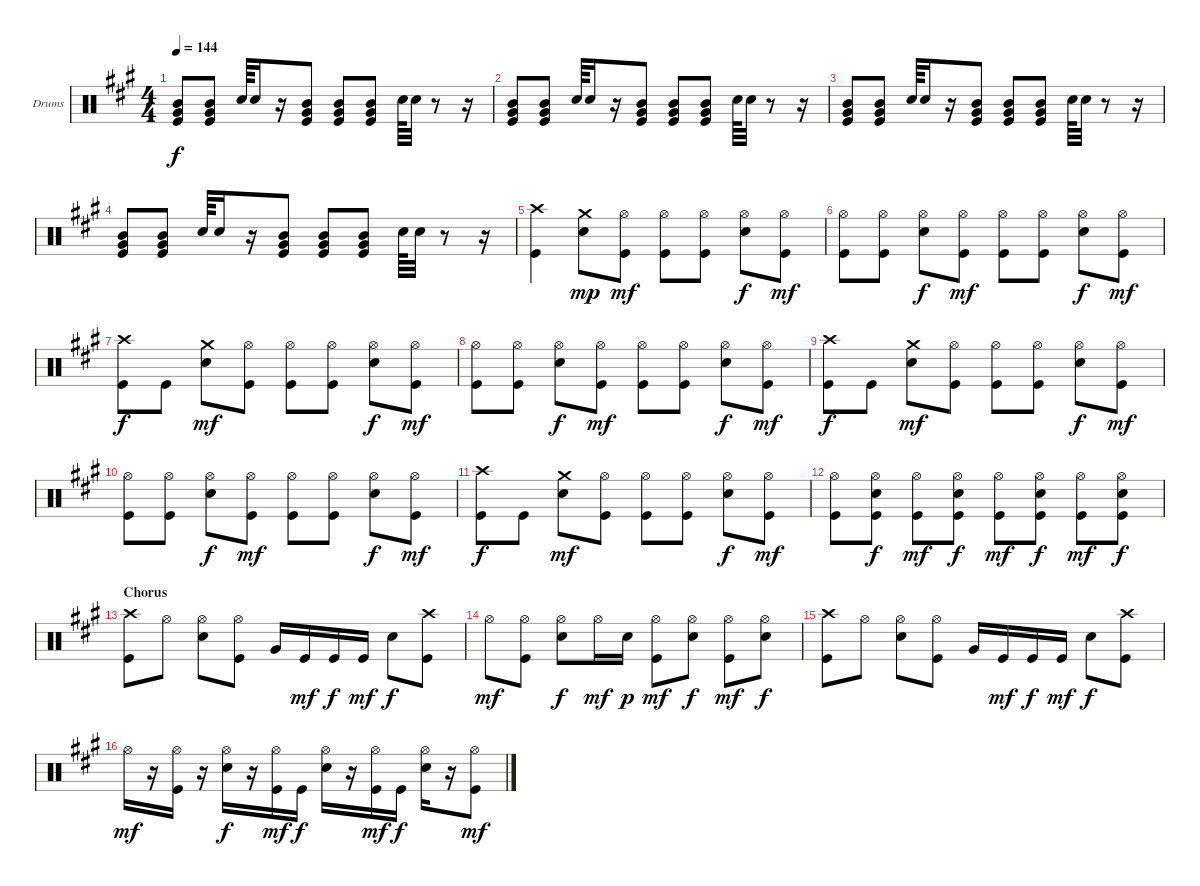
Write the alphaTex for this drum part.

\defaultSystemsLayout 4
\bracketExtendMode groupsimilarinstruments
\firstSystemTrackNameOrientation horizontal
\otherSystemsTrackNameOrientation horizontal
\track ("Drumkit" "Drums") {instrument percussion}
\staff {score}
\articulation defaults
\ts (4 4)
\tempo 144
\clef neutral
\scale
1.05801
\ks a
("Mid Tom (hit)" "Very Low Tom (hit)" "Kick (hit)").8{dy f} ("Mid Tom (hit)" "Very Low Tom (hit)" "Kick (hit)").8 "Snare (hit) 2".64 "Snare (hit) 2".16 r.16 ("Mid Tom (hit)" "Very Low Tom (hit)" "Kick (hit)").8 ("Mid Tom (hit)" "Very Low Tom (hit)" "Kick (hit)").8 ("Mid Tom (hit)" "Very Low Tom (hit)" "Kick (hit)").8 "Snare (hit) 2".64 "Snare (hit) 2".32 r.8 r.16 |
\scale
0.941992 ("Mid Tom (hit)" "Very Low Tom (hit)" "Kick (hit)").8 ("Mid Tom (hit)" "Very Low Tom (hit)" "Kick (hit)").8 "Snare (hit) 2".64 "Snare (hit) 2".16 r.16 ("Mid Tom (hit)" "Very Low Tom (hit)" "Kick (hit)").8 ("Mid Tom (hit)" "Very Low Tom (hit)" "Kick (hit)").8 ("Mid Tom (hit)" "Very Low Tom (hit)" "Kick (hit)").8 "Snare (hit) 2".64 "Snare (hit) 2".32 r.8 r.16 |
\scale
1.05801 ("Mid Tom (hit)" "Very Low Tom (hit)" "Kick (hit)").8 ("Mid Tom (hit)" "Very Low Tom (hit)" "Kick (hit)").8 "Snare (hit) 2".64 "Snare (hit) 2".16 r.16 ("Mid Tom (hit)" "Very Low Tom (hit)" "Kick (hit)").8 ("Mid Tom (hit)" "Very Low Tom (hit)" "Kick (hit)").8 ("Mid Tom (hit)" "Very Low Tom (hit)" "Kick (hit)").8 "Snare (hit) 2".64 "Snare (hit) 2".32 r.8 r.16 |
\scale
0.941992 ("Mid Tom (hit)" "Very Low Tom (hit)" "Kick (hit)").8 ("Mid Tom (hit)" "Very Low Tom (hit)" "Kick (hit)").8 "Snare (hit) 2".64 "Snare (hit) 2".16 r.16 ("Mid Tom (hit)" "Very Low Tom (hit)" "Kick (hit)").8 ("Mid Tom (hit)" "Very Low Tom (hit)" "Kick (hit)").8 ("Mid Tom (hit)" "Very Low Tom (hit)" "Kick (hit)").8 "Snare (hit) 2".64 "Snare (hit) 2".32 r.8 r.16 |
\scale
1.05801 ("Crash high (hit)" "Kick (hit)").4 ("Crash medium (hit)" "Snare (hit) 2").8{dy mp} ("Hi-Hat (open)" "Kick (hit)").8{dy mf} ("Hi-Hat (open)" "Kick (hit)").8 ("Hi-Hat (open)" "Kick (hit)").8 ("Hi-Hat (open)" "Snare (hit) 2").8{dy f} ("Hi-Hat (open)" "Kick (hit)").8{dy mf} |
\scale
0.941992 ("Hi-Hat (open)" "Kick (hit)").8 ("Hi-Hat (open)" "Kick (hit)").8 ("Hi-Hat (open)" "Snare (hit) 2").8{dy f} ("Hi-Hat (open)" "Kick (hit)").8{dy mf} ("Hi-Hat (open)" "Kick (hit)").8 ("Hi-Hat (open)" "Kick (hit)").8 ("Hi-Hat (open)" "Snare (hit) 2").8{dy f} ("Hi-Hat (open)" "Kick (hit)").8{dy mf} |
\scale
1.05801 ("Crash high (hit)" "Kick (hit)").8{dy f} "Kick (hit)".8 ("Crash medium (hit)" "Snare (hit) 2").8{dy mf} ("Hi-Hat (open)" "Kick (hit)").8 ("Hi-Hat (open)" "Kick (hit)").8 ("Hi-Hat (open)" "Kick (hit)").8 ("Hi-Hat (open)" "Snare (hit) 2").8{dy f} ("Hi-Hat (open)" "Kick (hit)").8{dy mf} |
\scale
0.941992 ("Hi-Hat (open)" "Kick (hit)").8 ("Hi-Hat (open)" "Kick (hit)").8 ("Hi-Hat (open)" "Snare (hit) 2").8{dy f} ("Hi-Hat (open)" "Kick (hit)").8{dy mf} ("Hi-Hat (open)" "Kick (hit)").8 ("Hi-Hat (open)" "Kick (hit)").8 ("Hi-Hat (open)" "Snare (hit) 2").8{dy f} ("Hi-Hat (open)" "Kick (hit)").8{dy mf} |
\scale
1.05801 ("Crash high (hit)" "Kick (hit)").8{dy f} "Kick (hit)".8 ("Crash medium (hit)" "Snare (hit) 2").8{dy mf} ("Hi-Hat (open)" "Kick (hit)").8 ("Hi-Hat (open)" "Kick (hit)").8 ("Hi-Hat (open)" "Kick (hit)").8 ("Hi-Hat (open)" "Snare (hit) 2").8{dy f} ("Hi-Hat (open)" "Kick (hit)").8{dy mf} |
\scale
0.941992 ("Hi-Hat (open)" "Kick (hit)").8 ("Hi-Hat (open)" "Kick (hit)").8 ("Hi-Hat (open)" "Snare (hit) 2").8{dy f} ("Hi-Hat (open)" "Kick (hit)").8{dy mf} ("Hi-Hat (open)" "Kick (hit)").8 ("Hi-Hat (open)" "Kick (hit)").8 ("Hi-Hat (open)" "Snare (hit) 2").8{dy f} ("Hi-Hat (open)" "Kick (hit)").8{dy mf} |
\scale
1.05801 ("Crash high (hit)" "Kick (hit)").8{dy f} "Kick (hit)".8 ("Crash medium (hit)" "Snare (hit) 2").8{dy mf} ("Hi-Hat (open)" "Kick (hit)").8 ("Hi-Hat (open)" "Kick (hit)").8 ("Hi-Hat (open)" "Kick (hit)").8 ("Hi-Hat (open)" "Snare (hit) 2").8{dy f} ("Hi-Hat (open)" "Kick (hit)").8{dy mf} |
\scale
0.941992 ("Hi-Hat (open)" "Kick (hit)").8 ("Hi-Hat (open)" "Snare (hit) 2" "Kick (hit)").8{dy f} ("Hi-Hat (open)" "Kick (hit)").8{dy mf} ("Hi-Hat (open)" "Snare (hit) 2" "Kick (hit)").8{dy f} ("Hi-Hat (open)" "Kick (hit)").8{dy mf} ("Hi-Hat (open)" "Snare (hit) 2" "Kick (hit)").8{dy f} ("Hi-Hat (open)" "Kick (hit)").8{dy mf} ("Hi-Hat (open)" "Snare (hit) 2" "Kick (hit)").8{dy f} |
\section ("" "Chorus")
\scale
1.05801 ("Crash high (hit)" "Kick (hit)").8 "Hi-Hat (open)".8 ("Hi-Hat (open)" "Snare (hit) 2").8 ("Hi-Hat (open)" "Kick (hit)").8 "Very Low Tom (hit)".16 "Kick (hit)".16{dy mf} "Kick (hit)".16{dy f} "Kick (hit)".16{dy mf} "Snare (hit) 2".8{dy f} ("Crash high (hit)" "Kick (hit)").8 |
\scale
0.941992 "Hi-Hat (open)".8{dy mf} ("Hi-Hat (open)" "Kick (hit)").8 ("Hi-Hat (open)" "Snare (hit) 2").8{dy f} "Hi-Hat (open)".16{dy mf} "Snare (hit) 2".16{dy p} ("Hi-Hat (open)" "Kick (hit)").8{dy mf} ("Hi-Hat (open)" "Snare (hit) 2").8{dy f} ("Hi-Hat (open)" "Kick (hit)").8{dy mf} ("Hi-Hat (open)" "Snare (hit) 2").8{dy f} |
\scale
1.05801 ("Crash high (hit)" "Kick (hit)").8 "Hi-Hat (open)".8 ("Hi-Hat (open)" "Snare (hit) 2").8 ("Hi-Hat (open)" "Kick (hit)").8 "Very Low Tom (hit)".16 "Kick (hit)".16{dy mf} "Kick (hit)".16{dy f} "Kick (hit)".16{dy mf} "Snare (hit) 2".8{dy f} ("Crash high (hit)" "Kick (hit)").8 |
\scale
0.941992 "Hi-Hat (open)".16{dy mf} r.16 ("Hi-Hat (open)" "Kick (hit)").16 r.16 ("Hi-Hat (open)" "Snare (hit) 2").16{dy f} r.16 ("Hi-Hat (open)" "Kick (hit)").16{dy mf} "Kick (hit)".16{dy f} ("Hi-Hat (open)" "Snare (hit) 2").16 r.16 ("Hi-Hat (open)" "Kick (hit)").16{dy mf} "Kick (hit)".16{dy f} ("Hi-Hat (open)" "Snare (hit) 2").16 r.16 ("Hi-Hat (open)" "Kick (hit)").8{dy mf}
